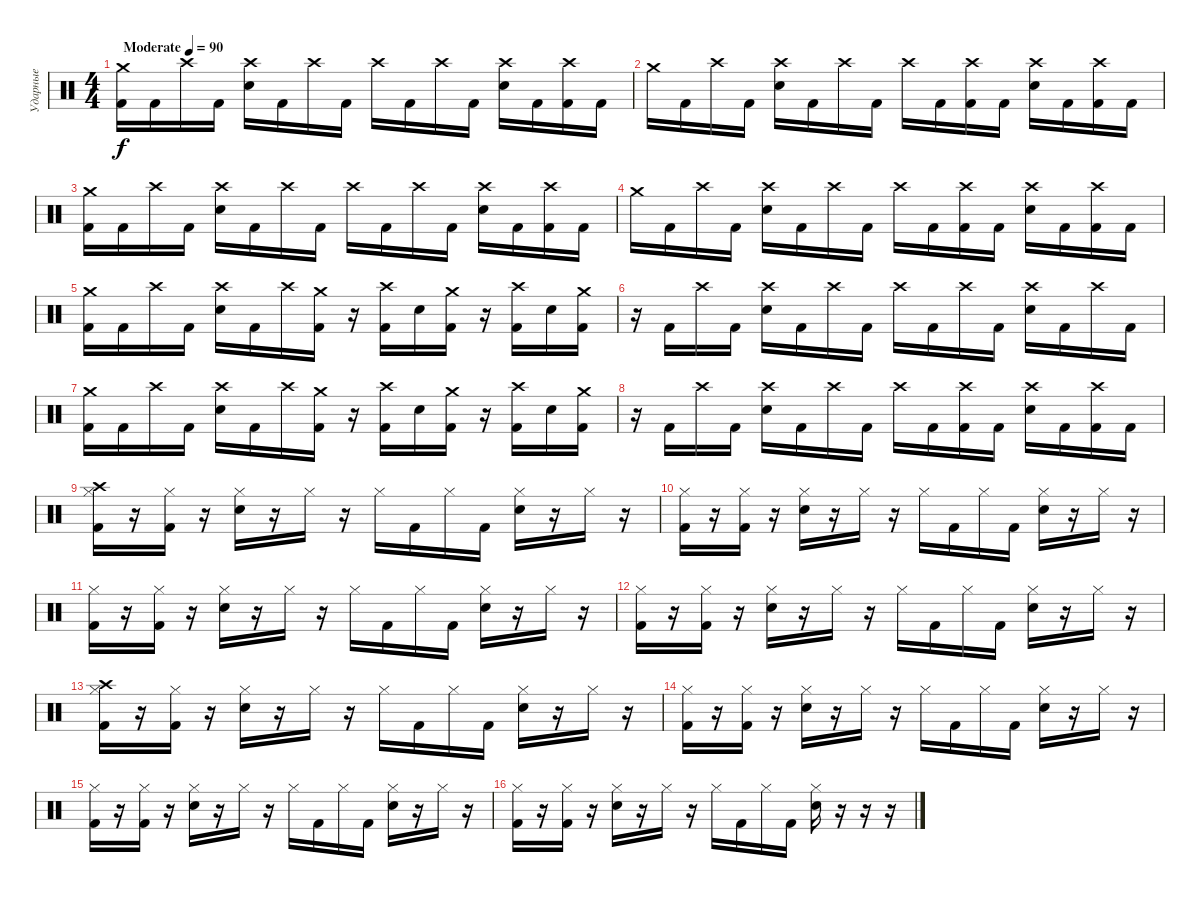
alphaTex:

\track ("Ударные" "Ударные") {instrument percussion}
\staff {score}
\articulation defaults
\ts (4 4)
\tempo (90 "Moderate")
\clef neutral
\ks c
("Crash medium (hit)" "Kick (hit) 2").16{dy f} "Kick (hit) 2".16 "Crash high (hit)".16 "Kick (hit) 2".16 ("Crash high (hit)" "Electric Snare (hit)").16 "Kick (hit) 2".16 "Crash high (hit)".16 "Kick (hit) 2".16 "Crash high (hit)".16 "Kick (hit) 2".16 "Crash high (hit)".16 "Kick (hit) 2".16 ("Crash high (hit)" "Electric Snare (hit)").16 "Kick (hit) 2".16 ("Crash high (hit)" "Kick (hit) 2").16 "Kick (hit) 2".16 |
"Crash medium (hit)".16 "Kick (hit) 2".16 "Crash high (hit)".16 "Kick (hit) 2".16 ("Crash high (hit)" "Electric Snare (hit)").16 "Kick (hit) 2".16 "Crash high (hit)".16 "Kick (hit) 2".16 "Crash high (hit)".16 "Kick (hit) 2".16 ("Crash high (hit)" "Kick (hit) 2").16 "Kick (hit) 2".16 ("Crash high (hit)" "Electric Snare (hit)").16 "Kick (hit) 2".16 ("Crash high (hit)" "Kick (hit) 2").16 "Kick (hit) 2".16 |
("Crash medium (hit)" "Kick (hit) 2").16 "Kick (hit) 2".16 "Crash high (hit)".16 "Kick (hit) 2".16 ("Crash high (hit)" "Electric Snare (hit)").16 "Kick (hit) 2".16 "Crash high (hit)".16 "Kick (hit) 2".16 "Crash high (hit)".16 "Kick (hit) 2".16 "Crash high (hit)".16 "Kick (hit) 2".16 ("Crash high (hit)" "Electric Snare (hit)").16 "Kick (hit) 2".16 ("Crash high (hit)" "Kick (hit) 2").16 "Kick (hit) 2".16 |
"Crash medium (hit)".16 "Kick (hit) 2".16 "Crash high (hit)".16 "Kick (hit) 2".16 ("Crash high (hit)" "Electric Snare (hit)").16 "Kick (hit) 2".16 "Crash high (hit)".16 "Kick (hit) 2".16 "Crash high (hit)".16 "Kick (hit) 2".16 ("Crash high (hit)" "Kick (hit) 2").16 "Kick (hit) 2".16 ("Crash high (hit)" "Electric Snare (hit)").16 "Kick (hit) 2".16 ("Crash high (hit)" "Kick (hit) 2").16 "Kick (hit) 2".16 |
("Crash medium (hit)" "Kick (hit) 2").16 "Kick (hit) 2".16 "Crash high (hit)".16 "Kick (hit) 2".16 ("Crash high (hit)" "Electric Snare (hit)").16 "Kick (hit) 2".16 "Crash high (hit)".16 ("Crash medium (hit)" "Kick (hit) 2").16 r.16 ("Crash high (hit)" "Kick (hit) 2").16 "Electric Snare (hit)".16 ("Crash medium (hit)" "Kick (hit) 2").16 r.16 ("Crash high (hit)" "Kick (hit) 2").16 "Electric Snare (hit)".16 ("Crash medium (hit)" "Kick (hit) 2").16 |
r.16 "Kick (hit) 2".16 "Crash high (hit)".16 "Kick (hit) 2".16 ("Crash high (hit)" "Electric Snare (hit)").16 "Kick (hit) 2".16 "Crash high (hit)".16 "Kick (hit) 2".16 "Crash high (hit)".16 "Kick (hit) 2".16 "Crash high (hit)".16 "Kick (hit) 2".16 ("Crash high (hit)" "Electric Snare (hit)").16 "Kick (hit) 2".16 "Crash high (hit)".16 "Kick (hit) 2".16 |
("Crash medium (hit)" "Kick (hit) 2").16 "Kick (hit) 2".16 "Crash high (hit)".16 "Kick (hit) 2".16 ("Crash high (hit)" "Electric Snare (hit)").16 "Kick (hit) 2".16 "Crash high (hit)".16 ("Crash medium (hit)" "Kick (hit) 2").16 r.16 ("Crash high (hit)" "Kick (hit) 2").16 "Electric Snare (hit)".16 ("Crash medium (hit)" "Kick (hit) 2").16 r.16 ("Crash high (hit)" "Kick (hit) 2").16 "Electric Snare (hit)".16 ("Crash medium (hit)" "Kick (hit) 2").16 |
r.16 "Kick (hit) 2".16 "Crash high (hit)".16 "Kick (hit) 2".16 ("Crash high (hit)" "Electric Snare (hit)").16 "Kick (hit) 2".16 "Crash high (hit)".16 "Kick (hit) 2".16 "Crash high (hit)".16 "Kick (hit) 2".16 ("Crash high (hit)" "Kick (hit) 2").16 "Kick (hit) 2".16 ("Crash high (hit)" "Electric Snare (hit)").16 "Kick (hit) 2".16 ("Crash high (hit)" "Kick (hit) 2").16 "Kick (hit) 2".16 |
("Crash high (hit)" "Hi-Hat (closed)" "Kick (hit) 2").16 r.16 ("Hi-Hat (closed)" "Kick (hit) 2").16 r.16 ("Hi-Hat (closed)" "Electric Snare (hit)").16 r.16 "Hi-Hat (closed)".16 r.16 "Hi-Hat (closed)".16 "Kick (hit) 2".16 "Hi-Hat (closed)".16 "Kick (hit) 2".16 ("Hi-Hat (closed)" "Electric Snare (hit)").16 r.16 "Hi-Hat (closed)".16 r.16 |
("Hi-Hat (closed)" "Kick (hit) 2").16 r.16 ("Hi-Hat (closed)" "Kick (hit) 2").16 r.16 ("Hi-Hat (closed)" "Electric Snare (hit)").16 r.16 "Hi-Hat (closed)".16 r.16 "Hi-Hat (closed)".16 "Kick (hit) 2".16 "Hi-Hat (closed)".16 "Kick (hit) 2".16 ("Hi-Hat (closed)" "Electric Snare (hit)").16 r.16 "Hi-Hat (closed)".16 r.16 |
("Hi-Hat (closed)" "Kick (hit) 2").16 r.16 ("Hi-Hat (closed)" "Kick (hit) 2").16 r.16 ("Hi-Hat (closed)" "Electric Snare (hit)").16 r.16 "Hi-Hat (closed)".16 r.16 "Hi-Hat (closed)".16 "Kick (hit) 2".16 "Hi-Hat (closed)".16 "Kick (hit) 2".16 ("Hi-Hat (closed)" "Electric Snare (hit)").16 r.16 "Hi-Hat (closed)".16 r.16 |
("Hi-Hat (closed)" "Kick (hit) 2").16 r.16 ("Hi-Hat (closed)" "Kick (hit) 2").16 r.16 ("Hi-Hat (closed)" "Electric Snare (hit)").16 r.16 "Hi-Hat (closed)".16 r.16 "Hi-Hat (closed)".16 "Kick (hit) 2".16 "Hi-Hat (closed)".16 "Kick (hit) 2".16 ("Hi-Hat (closed)" "Electric Snare (hit)").16 r.16 "Hi-Hat (closed)".16 r.16 |
("Crash high (hit)" "Hi-Hat (closed)" "Kick (hit) 2").16 r.16 ("Hi-Hat (closed)" "Kick (hit) 2").16 r.16 ("Hi-Hat (closed)" "Electric Snare (hit)").16 r.16 "Hi-Hat (closed)".16 r.16 "Hi-Hat (closed)".16 "Kick (hit) 2".16 "Hi-Hat (closed)".16 "Kick (hit) 2".16 ("Hi-Hat (closed)" "Electric Snare (hit)").16 r.16 "Hi-Hat (closed)".16 r.16 |
("Hi-Hat (closed)" "Kick (hit) 2").16 r.16 ("Hi-Hat (closed)" "Kick (hit) 2").16 r.16 ("Hi-Hat (closed)" "Electric Snare (hit)").16 r.16 "Hi-Hat (closed)".16 r.16 "Hi-Hat (closed)".16 "Kick (hit) 2".16 "Hi-Hat (closed)".16 "Kick (hit) 2".16 ("Hi-Hat (closed)" "Electric Snare (hit)").16 r.16 "Hi-Hat (closed)".16 r.16 |
("Hi-Hat (closed)" "Kick (hit) 2").16 r.16 ("Hi-Hat (closed)" "Kick (hit) 2").16 r.16 ("Hi-Hat (closed)" "Electric Snare (hit)").16 r.16 "Hi-Hat (closed)".16 r.16 "Hi-Hat (closed)".16 "Kick (hit) 2".16 "Hi-Hat (closed)".16 "Kick (hit) 2".16 ("Hi-Hat (closed)" "Electric Snare (hit)").16 r.16 "Hi-Hat (closed)".16 r.16 |
("Hi-Hat (closed)" "Kick (hit) 2").16 r.16 ("Hi-Hat (closed)" "Kick (hit) 2").16 r.16 ("Hi-Hat (closed)" "Electric Snare (hit)").16 r.16 "Hi-Hat (closed)".16 r.16 "Hi-Hat (closed)".16 "Kick (hit) 2".16 "Hi-Hat (closed)".16 "Kick (hit) 2".16 ("Hi-Hat (closed)" "Electric Snare (hit)").16 r.16 r.16 r.16
